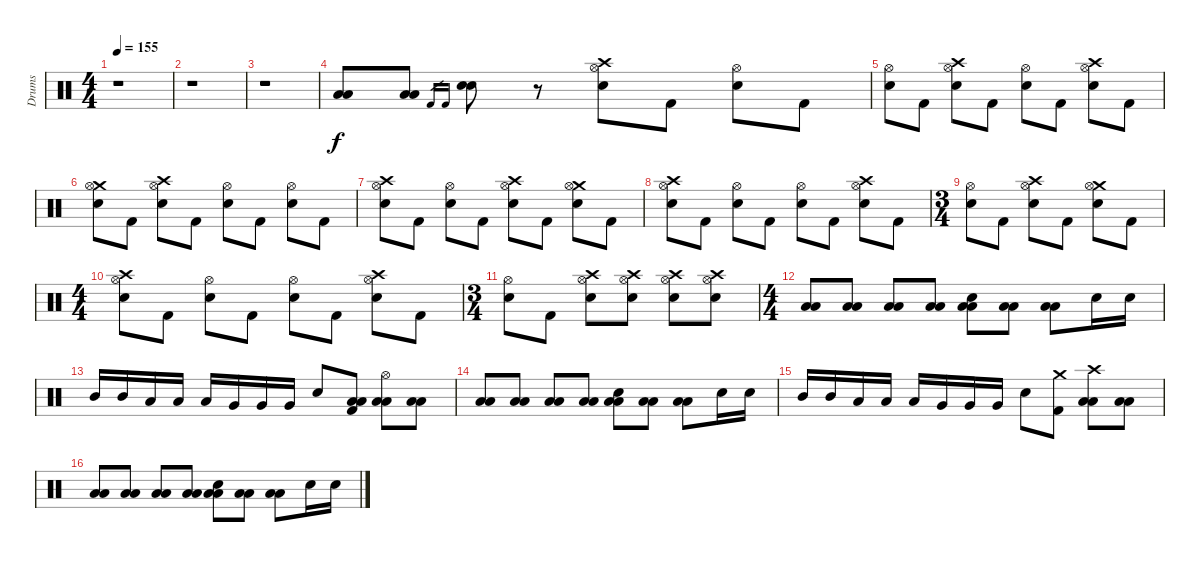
\track ("Drums" "Drums") {instrument percussion}
\staff {score}
\articulation defaults
\ts (4 4)
\tempo 155
\clef neutral
\ks c
r.1{dy f} |
r.1 |
r.1 |
("Low Tom (hit)" "Low Tom (hit)").8 ("Low Tom (hit)" "Low Tom (hit)").8 "Kick (hit) 2".16{gr} "Kick (hit) 2".16{gr} ("Snare (hit) 2" "Snare (hit) 2").8 r.8 ("Crash high (hit)" "Hi-Hat (open)" "Snare (hit) 2").8 "Kick (hit) 2".8 ("Hi-Hat (open)" "Snare (hit) 2").8 "Kick (hit) 2".8 |
("Hi-Hat (open)" "Snare (hit) 2").8 "Kick (hit) 2".8 ("Crash high (hit)" "Hi-Hat (open)" "Snare (hit) 2").8 "Kick (hit) 2".8 ("Hi-Hat (open)" "Snare (hit) 2").8 "Kick (hit) 2".8 ("Crash high (hit)" "Hi-Hat (open)" "Snare (hit) 2").8 "Kick (hit) 2".8 |
("Crash medium (hit)" "Hi-Hat (open)" "Snare (hit) 2").8 "Kick (hit) 2".8 ("Crash high (hit)" "Hi-Hat (open)" "Snare (hit) 2").8 "Kick (hit) 2".8 ("Hi-Hat (open)" "Snare (hit) 2").8 "Kick (hit) 2".8 ("Hi-Hat (open)" "Snare (hit) 2").8 "Kick (hit) 2".8 |
("Crash high (hit)" "Hi-Hat (open)" "Snare (hit) 2").8 "Kick (hit) 2".8 ("Hi-Hat (open)" "Snare (hit) 2").8 "Kick (hit) 2".8 ("Crash high (hit)" "Hi-Hat (open)" "Snare (hit) 2").8 "Kick (hit) 2".8 ("Crash medium (hit)" "Hi-Hat (open)" "Snare (hit) 2").8 "Kick (hit) 2".8 |
("Crash high (hit)" "Hi-Hat (open)" "Snare (hit) 2").8 "Kick (hit) 2".8 ("Hi-Hat (open)" "Snare (hit) 2").8 "Kick (hit) 2".8 ("Hi-Hat (open)" "Snare (hit) 2").8 "Kick (hit) 2".8 ("Crash high (hit)" "Hi-Hat (open)" "Snare (hit) 2").8 "Kick (hit) 2".8 |
\ts (3 4)
("Hi-Hat (open)" "Snare (hit) 2").8 "Kick (hit) 2".8 ("Crash high (hit)" "Hi-Hat (open)" "Snare (hit) 2").8 "Kick (hit) 2".8 ("Crash medium (hit)" "Hi-Hat (open)" "Snare (hit) 2").8 "Kick (hit) 2".8 |
\ts (4 4)
("Crash high (hit)" "Hi-Hat (open)" "Snare (hit) 2").8 "Kick (hit) 2".8 ("Hi-Hat (open)" "Snare (hit) 2").8 "Kick (hit) 2".8 ("Hi-Hat (open)" "Snare (hit) 2").8 "Kick (hit) 2".8 ("Crash high (hit)" "Hi-Hat (open)" "Snare (hit) 2").8 "Kick (hit) 2".8 |
\ts (3 4)
("Hi-Hat (open)" "Snare (hit) 2").8 "Kick (hit) 2".8 ("Crash high (hit)" "Hi-Hat (open)" "Snare (hit) 2").8 ("Crash high (hit)" "Hi-Hat (open)" "Snare (hit) 2").8 ("Crash high (hit)" "Hi-Hat (open)" "Snare (hit) 2").8 ("Crash high (hit)" "Hi-Hat (open)" "Snare (hit) 2").8 |
\ts (4 4)
("Low Floor Tom (hit)" "Low Floor Tom (hit)").8 ("Low Floor Tom (hit)" "Low Floor Tom (hit)").8 ("Low Floor Tom (hit)" "Low Floor Tom (hit)").8 ("Low Floor Tom (hit)" "Low Floor Tom (hit)").8 ("Low Floor Tom (hit)" "Snare (hit) 2" "Low Floor Tom (hit)").8 ("Low Floor Tom (hit)" "Low Floor Tom (hit)").8 ("Low Floor Tom (hit)" "Low Floor Tom (hit)").8 "Snare (hit) 2".16 "Snare (hit) 2".16 |
"Mid Tom (hit)".16 "Mid Tom (hit)".16 "Low Tom (hit)".16 "Low Tom (hit)".16 "Low Tom (hit)".16 "Very Low Tom (hit)".16 "Very Low Tom (hit)".16 "Very Low Tom (hit)".16 "Snare (hit) 2".8 ("Low Floor Tom (hit)" "Low Floor Tom (hit)" "Kick (hit) 2").8 ("Low Floor Tom (hit)" "Low Floor Tom (hit)" "Hi-Hat (open)").8 ("Low Floor Tom (hit)" "Low Floor Tom (hit)").8 |
("Low Floor Tom (hit)" "Low Floor Tom (hit)").8 ("Low Floor Tom (hit)" "Low Floor Tom (hit)").8 ("Low Floor Tom (hit)" "Low Floor Tom (hit)").8 ("Low Floor Tom (hit)" "Low Floor Tom (hit)").8 ("Low Floor Tom (hit)" "Snare (hit) 2" "Low Floor Tom (hit)").8 ("Low Floor Tom (hit)" "Low Floor Tom (hit)").8 ("Low Floor Tom (hit)" "Low Floor Tom (hit)").8 "Snare (hit) 2".16 "Snare (hit) 2".16 |
"Mid Tom (hit)".16 "Mid Tom (hit)".16 "Low Tom (hit)".16 "Low Tom (hit)".16 "Low Tom (hit)".16 "Very Low Tom (hit)".16 "Very Low Tom (hit)".16 "Very Low Tom (hit)".16 "Snare (hit) 2".8 ("Crash medium (hit)" "Kick (hit) 2").8 ("Low Floor Tom (hit)" "Low Floor Tom (hit)" "Crash high (hit)").8 ("Low Floor Tom (hit)" "Low Floor Tom (hit)").8 |
("Low Floor Tom (hit)" "Low Floor Tom (hit)").8 ("Low Floor Tom (hit)" "Low Floor Tom (hit)").8 ("Low Floor Tom (hit)" "Low Floor Tom (hit)").8 ("Low Floor Tom (hit)" "Low Floor Tom (hit)").8 ("Low Floor Tom (hit)" "Snare (hit) 2" "Low Floor Tom (hit)").8 ("Low Floor Tom (hit)" "Low Floor Tom (hit)").8 ("Low Floor Tom (hit)" "Low Floor Tom (hit)").8 "Snare (hit) 2".16 "Snare (hit) 2".16
